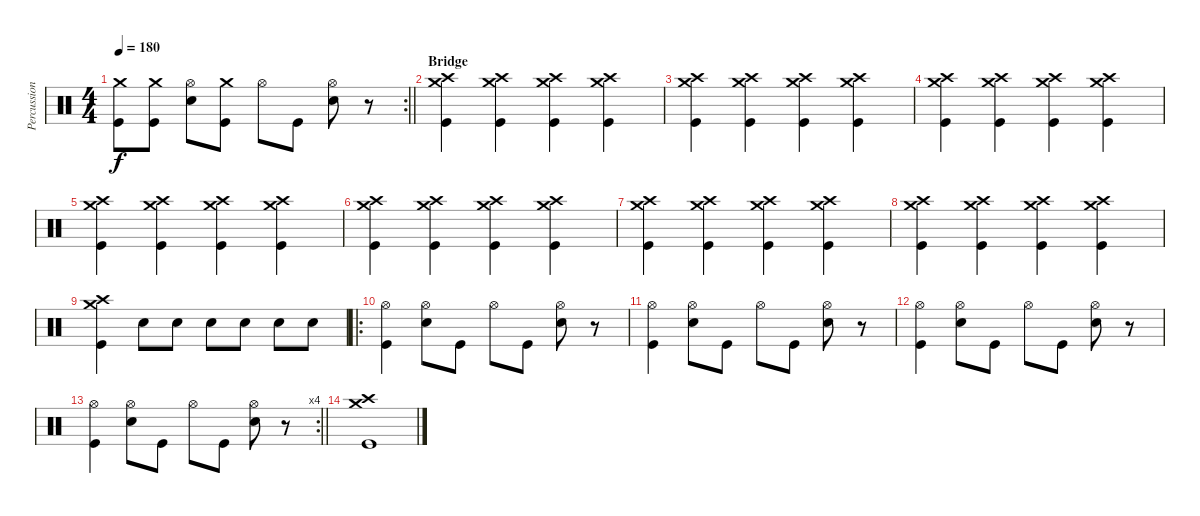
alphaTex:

\track ("Percussion" "Percussion") {instrument percussion}
\staff {score}
\articulation defaults
\rc 2
\ts (4 4)
\tempo 180
\clef neutral
\barLineRight lightlight
\ks c
("Crash medium (hit)" "Kick (hit)").8{dy f} ("Crash medium (hit)" "Kick (hit)").8 ("Hi-Hat (open)" "Snare (hit) 2").8 ("Crash medium (hit)" "Kick (hit)").8 "Hi-Hat (open)".8 "Kick (hit)".8 ("Hi-Hat (open)" "Snare (hit) 2").8 r.8 |
\section ("" "Bridge")
("Crash medium (hit)" "Crash high (hit)" "Kick (hit)").4 ("Crash medium (hit)" "Crash high (hit)" "Kick (hit)").4 ("Crash medium (hit)" "Crash high (hit)" "Kick (hit)").4 ("Crash medium (hit)" "Crash high (hit)" "Kick (hit)").4 |
("Crash medium (hit)" "Crash high (hit)" "Kick (hit)").4 ("Crash medium (hit)" "Crash high (hit)" "Kick (hit)").4 ("Crash medium (hit)" "Crash high (hit)" "Kick (hit)").4 ("Crash medium (hit)" "Crash high (hit)" "Kick (hit)").4 |
("Crash medium (hit)" "Crash high (hit)" "Kick (hit)").4 ("Crash medium (hit)" "Crash high (hit)" "Kick (hit)").4 ("Crash medium (hit)" "Crash high (hit)" "Kick (hit)").4 ("Crash medium (hit)" "Crash high (hit)" "Kick (hit)").4 |
("Crash medium (hit)" "Crash high (hit)" "Kick (hit)").4 ("Crash medium (hit)" "Crash high (hit)" "Kick (hit)").4 ("Crash medium (hit)" "Crash high (hit)" "Kick (hit)").4 ("Crash medium (hit)" "Crash high (hit)" "Kick (hit)").4 |
("Crash medium (hit)" "Crash high (hit)" "Kick (hit)").4 ("Crash medium (hit)" "Crash high (hit)" "Kick (hit)").4 ("Crash medium (hit)" "Crash high (hit)" "Kick (hit)").4 ("Crash medium (hit)" "Crash high (hit)" "Kick (hit)").4 |
("Crash medium (hit)" "Crash high (hit)" "Kick (hit)").4 ("Crash medium (hit)" "Crash high (hit)" "Kick (hit)").4 ("Crash medium (hit)" "Crash high (hit)" "Kick (hit)").4 ("Crash medium (hit)" "Crash high (hit)" "Kick (hit)").4 |
("Crash medium (hit)" "Crash high (hit)" "Kick (hit)").4 ("Crash medium (hit)" "Crash high (hit)" "Kick (hit)").4 ("Crash medium (hit)" "Crash high (hit)" "Kick (hit)").4 ("Crash medium (hit)" "Crash high (hit)" "Kick (hit)").4 |
("Crash medium (hit)" "Crash high (hit)" "Kick (hit)").4 "Snare (hit) 2".8 "Snare (hit) 2".8 "Snare (hit) 2".8 "Snare (hit) 2".8 "Snare (hit) 2".8 "Snare (hit) 2".8 |
\ro
("Hi-Hat (open)" "Kick (hit)").4 ("Hi-Hat (open)" "Snare (hit) 2").8 "Kick (hit)".8 "Hi-Hat (open)".8 "Kick (hit)".8 ("Hi-Hat (open)" "Snare (hit) 2").8 r.8 |
("Hi-Hat (open)" "Kick (hit)").4 ("Hi-Hat (open)" "Snare (hit) 2").8 "Kick (hit)".8 "Hi-Hat (open)".8 "Kick (hit)".8 ("Hi-Hat (open)" "Snare (hit) 2").8 r.8 |
("Hi-Hat (open)" "Kick (hit)").4 ("Hi-Hat (open)" "Snare (hit) 2").8 "Kick (hit)".8 "Hi-Hat (open)".8 "Kick (hit)".8 ("Hi-Hat (open)" "Snare (hit) 2").8 r.8 |
\rc 4
\barLineRight lightlight
("Hi-Hat (open)" "Kick (hit)").4 ("Hi-Hat (open)" "Snare (hit) 2").8 "Kick (hit)".8 "Hi-Hat (open)".8 "Kick (hit)".8 ("Hi-Hat (open)" "Snare (hit) 2").8 r.8 |
("Crash medium (hit)" "Crash high (hit)" "Kick (hit)").1
